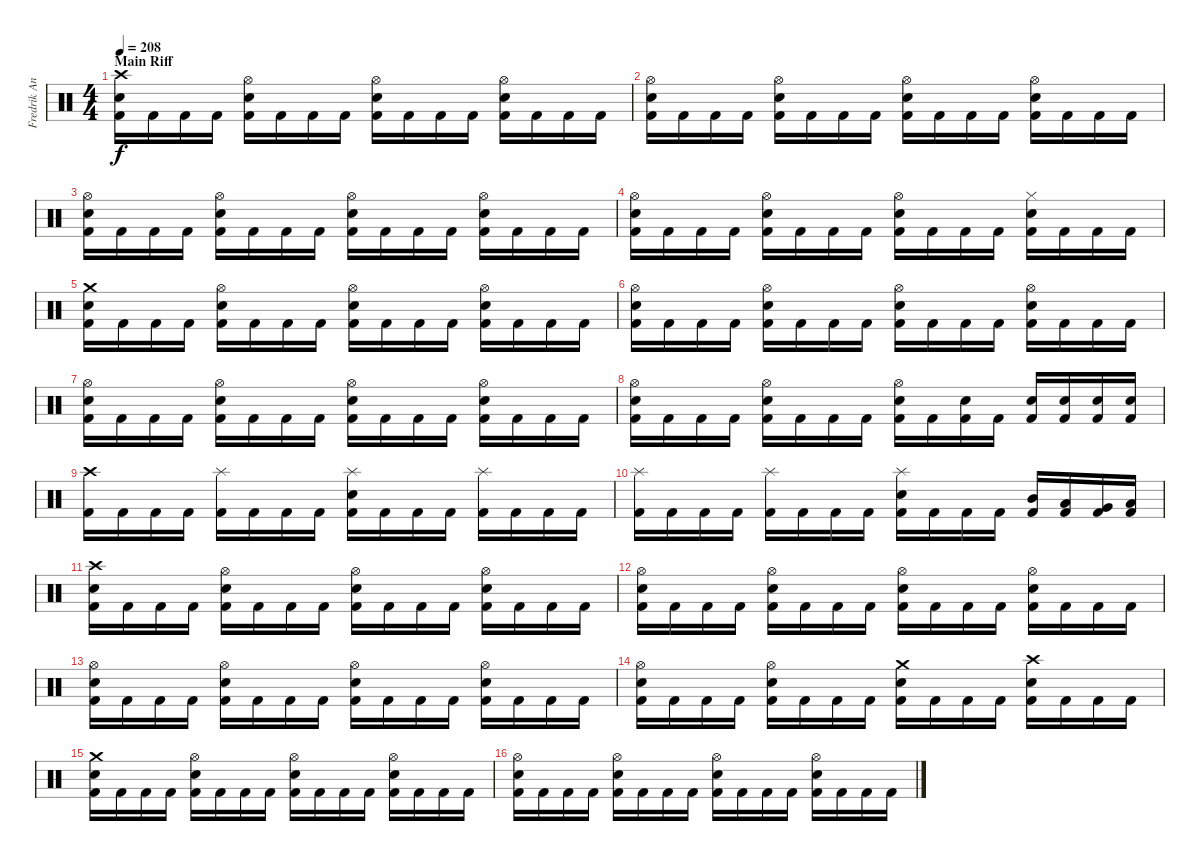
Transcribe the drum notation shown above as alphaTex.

\track ("Fredrik Andersson" "Fredrik An") {instrument percussion}
\staff {score}
\articulation defaults
\ts (4 4)
\section ("" "Main Riff")
\tempo 208
\clef neutral
\ks c
("Crash high (hit)" "Electric Snare (hit)" "Kick (hit) 2").16{dy f} "Kick (hit) 2".16 "Kick (hit) 2".16 "Kick (hit) 2".16 ("Hi-Hat (open)" "Electric Snare (hit)" "Kick (hit) 2").16 "Kick (hit) 2".16 "Kick (hit) 2".16 "Kick (hit) 2".16 ("Hi-Hat (open)" "Electric Snare (hit)" "Kick (hit) 2").16 "Kick (hit) 2".16 "Kick (hit) 2".16 "Kick (hit) 2".16 ("Hi-Hat (open)" "Electric Snare (hit)" "Kick (hit) 2").16 "Kick (hit) 2".16 "Kick (hit) 2".16 "Kick (hit) 2".16 |
("Hi-Hat (open)" "Electric Snare (hit)" "Kick (hit) 2").16 "Kick (hit) 2".16 "Kick (hit) 2".16 "Kick (hit) 2".16 ("Hi-Hat (open)" "Electric Snare (hit)" "Kick (hit) 2").16 "Kick (hit) 2".16 "Kick (hit) 2".16 "Kick (hit) 2".16 ("Hi-Hat (open)" "Electric Snare (hit)" "Kick (hit) 2").16 "Kick (hit) 2".16 "Kick (hit) 2".16 "Kick (hit) 2".16 ("Hi-Hat (open)" "Electric Snare (hit)" "Kick (hit) 2").16 "Kick (hit) 2".16 "Kick (hit) 2".16 "Kick (hit) 2".16 |
("Hi-Hat (open)" "Electric Snare (hit)" "Kick (hit) 2").16 "Kick (hit) 2".16 "Kick (hit) 2".16 "Kick (hit) 2".16 ("Hi-Hat (open)" "Electric Snare (hit)" "Kick (hit) 2").16 "Kick (hit) 2".16 "Kick (hit) 2".16 "Kick (hit) 2".16 ("Hi-Hat (open)" "Electric Snare (hit)" "Kick (hit) 2").16 "Kick (hit) 2".16 "Kick (hit) 2".16 "Kick (hit) 2".16 ("Hi-Hat (open)" "Electric Snare (hit)" "Kick (hit) 2").16 "Kick (hit) 2".16 "Kick (hit) 2".16 "Kick (hit) 2".16 |
("Hi-Hat (open)" "Electric Snare (hit)" "Kick (hit) 2").16 "Kick (hit) 2".16 "Kick (hit) 2".16 "Kick (hit) 2".16 ("Hi-Hat (open)" "Electric Snare (hit)" "Kick (hit) 2").16 "Kick (hit) 2".16 "Kick (hit) 2".16 "Kick (hit) 2".16 ("Hi-Hat (open)" "Electric Snare (hit)" "Kick (hit) 2").16 "Kick (hit) 2".16 "Kick (hit) 2".16 "Kick (hit) 2".16 ("Hi-Hat (closed)" "Electric Snare (hit)" "Kick (hit) 2").16 "Kick (hit) 2".16 "Kick (hit) 2".16 "Kick (hit) 2".16 |
("Crash medium (hit)" "Electric Snare (hit)" "Kick (hit) 2").16 "Kick (hit) 2".16 "Kick (hit) 2".16 "Kick (hit) 2".16 ("Hi-Hat (open)" "Electric Snare (hit)" "Kick (hit) 2").16 "Kick (hit) 2".16 "Kick (hit) 2".16 "Kick (hit) 2".16 ("Hi-Hat (open)" "Electric Snare (hit)" "Kick (hit) 2").16 "Kick (hit) 2".16 "Kick (hit) 2".16 "Kick (hit) 2".16 ("Hi-Hat (open)" "Electric Snare (hit)" "Kick (hit) 2").16 "Kick (hit) 2".16 "Kick (hit) 2".16 "Kick (hit) 2".16 |
("Hi-Hat (open)" "Electric Snare (hit)" "Kick (hit) 2").16 "Kick (hit) 2".16 "Kick (hit) 2".16 "Kick (hit) 2".16 ("Hi-Hat (open)" "Electric Snare (hit)" "Kick (hit) 2").16 "Kick (hit) 2".16 "Kick (hit) 2".16 "Kick (hit) 2".16 ("Hi-Hat (open)" "Electric Snare (hit)" "Kick (hit) 2").16 "Kick (hit) 2".16 "Kick (hit) 2".16 "Kick (hit) 2".16 ("Hi-Hat (open)" "Electric Snare (hit)" "Kick (hit) 2").16 "Kick (hit) 2".16 "Kick (hit) 2".16 "Kick (hit) 2".16 |
("Hi-Hat (open)" "Electric Snare (hit)" "Kick (hit) 2").16 "Kick (hit) 2".16 "Kick (hit) 2".16 "Kick (hit) 2".16 ("Hi-Hat (open)" "Electric Snare (hit)" "Kick (hit) 2").16 "Kick (hit) 2".16 "Kick (hit) 2".16 "Kick (hit) 2".16 ("Hi-Hat (open)" "Electric Snare (hit)" "Kick (hit) 2").16 "Kick (hit) 2".16 "Kick (hit) 2".16 "Kick (hit) 2".16 ("Hi-Hat (open)" "Electric Snare (hit)" "Kick (hit) 2").16 "Kick (hit) 2".16 "Kick (hit) 2".16 "Kick (hit) 2".16 |
("Hi-Hat (open)" "Electric Snare (hit)" "Kick (hit) 2").16 "Kick (hit) 2".16 "Kick (hit) 2".16 "Kick (hit) 2".16 ("Hi-Hat (open)" "Electric Snare (hit)" "Kick (hit) 2").16 "Kick (hit) 2".16 "Kick (hit) 2".16 "Kick (hit) 2".16 ("Hi-Hat (open)" "Electric Snare (hit)" "Kick (hit) 2").16 "Kick (hit) 2".16 ("Electric Snare (hit)" "Kick (hit) 2").16 "Kick (hit) 2".16 ("Electric Snare (hit)" "Kick (hit) 2").16 ("Electric Snare (hit)" "Kick (hit) 2").16 ("Electric Snare (hit)" "Kick (hit) 2").16 ("Electric Snare (hit)" "Kick (hit) 2").16 |
("Crash high (hit)" "Kick (hit) 2").16 "Kick (hit) 2".16 "Kick (hit) 2".16 "Kick (hit) 2".16 ("Splash (hit)" "Kick (hit) 2").16 "Kick (hit) 2".16 "Kick (hit) 2".16 "Kick (hit) 2".16 ("Splash (hit)" "Electric Snare (hit)" "Kick (hit) 2").16 "Kick (hit) 2".16 "Kick (hit) 2".16 "Kick (hit) 2".16 ("Splash (hit)" "Kick (hit) 2").16 "Kick (hit) 2".16 "Kick (hit) 2".16 "Kick (hit) 2".16 |
("Splash (hit)" "Kick (hit) 2").16 "Kick (hit) 2".16 "Kick (hit) 2".16 "Kick (hit) 2".16 ("Splash (hit)" "Kick (hit) 2").16 "Kick (hit) 2".16 "Kick (hit) 2".16 "Kick (hit) 2".16 ("Splash (hit)" "Electric Snare (hit)" "Kick (hit) 2").16 "Kick (hit) 2".16 "Kick (hit) 2".16 "Kick (hit) 2".16 ("Mid Tom (hit)" "Kick (hit) 2").16 ("Low Tom (hit)" "Kick (hit) 2").16 ("Very Low Tom (hit)" "Kick (hit) 2").16 ("Low Floor Tom (hit)" "Kick (hit) 2").16 |
("Crash high (hit)" "Electric Snare (hit)" "Kick (hit) 2").16 "Kick (hit) 2".16 "Kick (hit) 2".16 "Kick (hit) 2".16 ("Hi-Hat (open)" "Electric Snare (hit)" "Kick (hit) 2").16 "Kick (hit) 2".16 "Kick (hit) 2".16 "Kick (hit) 2".16 ("Hi-Hat (open)" "Electric Snare (hit)" "Kick (hit) 2").16 "Kick (hit) 2".16 "Kick (hit) 2".16 "Kick (hit) 2".16 ("Hi-Hat (open)" "Electric Snare (hit)" "Kick (hit) 2").16 "Kick (hit) 2".16 "Kick (hit) 2".16 "Kick (hit) 2".16 |
("Hi-Hat (open)" "Electric Snare (hit)" "Kick (hit) 2").16 "Kick (hit) 2".16 "Kick (hit) 2".16 "Kick (hit) 2".16 ("Hi-Hat (open)" "Electric Snare (hit)" "Kick (hit) 2").16 "Kick (hit) 2".16 "Kick (hit) 2".16 "Kick (hit) 2".16 ("Hi-Hat (open)" "Electric Snare (hit)" "Kick (hit) 2").16 "Kick (hit) 2".16 "Kick (hit) 2".16 "Kick (hit) 2".16 ("Hi-Hat (open)" "Electric Snare (hit)" "Kick (hit) 2").16 "Kick (hit) 2".16 "Kick (hit) 2".16 "Kick (hit) 2".16 |
("Hi-Hat (open)" "Electric Snare (hit)" "Kick (hit) 2").16 "Kick (hit) 2".16 "Kick (hit) 2".16 "Kick (hit) 2".16 ("Hi-Hat (open)" "Electric Snare (hit)" "Kick (hit) 2").16 "Kick (hit) 2".16 "Kick (hit) 2".16 "Kick (hit) 2".16 ("Hi-Hat (open)" "Electric Snare (hit)" "Kick (hit) 2").16 "Kick (hit) 2".16 "Kick (hit) 2".16 "Kick (hit) 2".16 ("Hi-Hat (open)" "Electric Snare (hit)" "Kick (hit) 2").16 "Kick (hit) 2".16 "Kick (hit) 2".16 "Kick (hit) 2".16 |
("Hi-Hat (open)" "Electric Snare (hit)" "Kick (hit) 2").16 "Kick (hit) 2".16 "Kick (hit) 2".16 "Kick (hit) 2".16 ("Hi-Hat (open)" "Electric Snare (hit)" "Kick (hit) 2").16 "Kick (hit) 2".16 "Kick (hit) 2".16 "Kick (hit) 2".16 ("Crash medium (hit)" "Electric Snare (hit)" "Kick (hit) 2").16 "Kick (hit) 2".16 "Kick (hit) 2".16 "Kick (hit) 2".16 ("Crash high (hit)" "Electric Snare (hit)" "Kick (hit) 2").16 "Kick (hit) 2".16 "Kick (hit) 2".16 "Kick (hit) 2".16 |
("Crash medium (hit)" "Electric Snare (hit)" "Kick (hit) 2").16 "Kick (hit) 2".16 "Kick (hit) 2".16 "Kick (hit) 2".16 ("Hi-Hat (open)" "Electric Snare (hit)" "Kick (hit) 2").16 "Kick (hit) 2".16 "Kick (hit) 2".16 "Kick (hit) 2".16 ("Hi-Hat (open)" "Electric Snare (hit)" "Kick (hit) 2").16 "Kick (hit) 2".16 "Kick (hit) 2".16 "Kick (hit) 2".16 ("Hi-Hat (open)" "Electric Snare (hit)" "Kick (hit) 2").16 "Kick (hit) 2".16 "Kick (hit) 2".16 "Kick (hit) 2".16 |
("Hi-Hat (open)" "Electric Snare (hit)" "Kick (hit) 2").16 "Kick (hit) 2".16 "Kick (hit) 2".16 "Kick (hit) 2".16 ("Hi-Hat (open)" "Electric Snare (hit)" "Kick (hit) 2").16 "Kick (hit) 2".16 "Kick (hit) 2".16 "Kick (hit) 2".16 ("Hi-Hat (open)" "Electric Snare (hit)" "Kick (hit) 2").16 "Kick (hit) 2".16 "Kick (hit) 2".16 "Kick (hit) 2".16 ("Hi-Hat (open)" "Electric Snare (hit)" "Kick (hit) 2").16 "Kick (hit) 2".16 "Kick (hit) 2".16 "Kick (hit) 2".16
